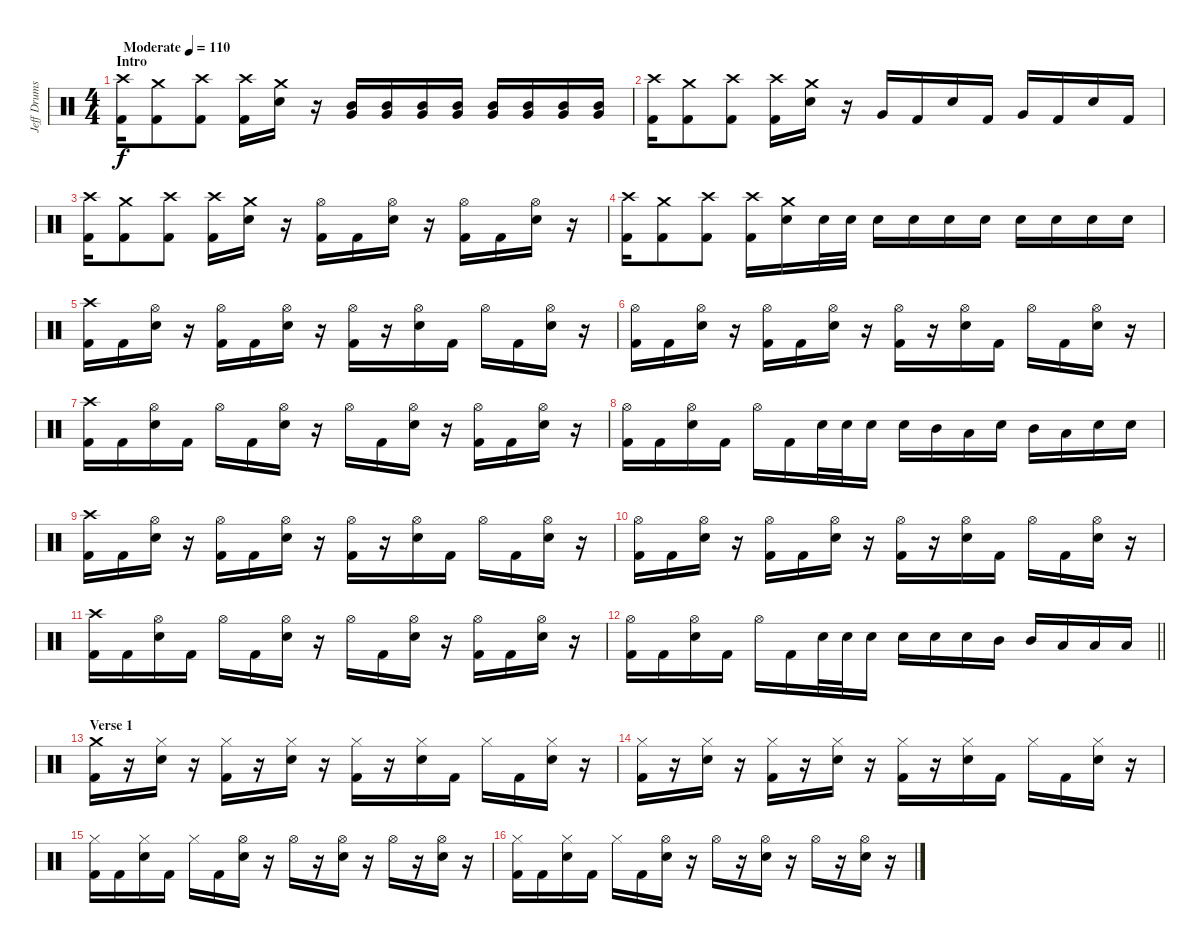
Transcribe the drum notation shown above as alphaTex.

\track ("Jeff Drums" "Jeff Drums") {instrument percussion}
\staff {score}
\articulation defaults
\ts (4 4)
\section ("" "Intro")
\tempo (110 "Moderate")
\clef neutral
\ks c
("Crash high (hit)" "Kick (hit) 2").16{dy f} ("Crash medium (hit)" "Kick (hit) 2").8 ("Crash high (hit)" "Kick (hit) 2").8 ("Crash high (hit)" "Kick (hit) 2").16 ("Crash medium (hit)" "Electric Snare (hit)").16 r.16 ("Mid Tom (hit)" "Very Low Tom (hit)").16 ("Mid Tom (hit)" "Very Low Tom (hit)").16 ("Mid Tom (hit)" "Very Low Tom (hit)").16 ("Mid Tom (hit)" "Very Low Tom (hit)").16 ("Mid Tom (hit)" "Very Low Tom (hit)").16 ("Mid Tom (hit)" "Very Low Tom (hit)").16 ("Mid Tom (hit)" "Very Low Tom (hit)").16 ("Mid Tom (hit)" "Very Low Tom (hit)").16 |
("Crash high (hit)" "Kick (hit) 2").16 ("Crash medium (hit)" "Kick (hit) 2").8 ("Crash high (hit)" "Kick (hit) 2").8 ("Crash high (hit)" "Kick (hit) 2").16 ("Crash medium (hit)" "Electric Snare (hit)").16 r.16 "Very Low Tom (hit)".16 "Kick (hit) 2".16 "Electric Snare (hit)".16 "Kick (hit) 2".16 "Very Low Tom (hit)".16 "Kick (hit) 2".16 "Electric Snare (hit)".16 "Kick (hit) 2".16 |
("Crash high (hit)" "Kick (hit) 2").16 ("Crash medium (hit)" "Kick (hit) 2").8 ("Crash high (hit)" "Kick (hit) 2").8 ("Crash high (hit)" "Kick (hit) 2").16 ("Crash medium (hit)" "Electric Snare (hit)").16 r.16 ("Hi-Hat (open)" "Kick (hit) 2").16 "Kick (hit) 2".16 ("Hi-Hat (open)" "Electric Snare (hit)").16 r.16 ("Hi-Hat (open)" "Kick (hit) 2").16 "Kick (hit) 2".16 ("Hi-Hat (open)" "Electric Snare (hit)").16 r.16 |
("Crash high (hit)" "Kick (hit) 2").16 ("Crash medium (hit)" "Kick (hit) 2").8 ("Crash high (hit)" "Kick (hit) 2").8 ("Crash high (hit)" "Kick (hit) 2").16 ("Crash medium (hit)" "Electric Snare (hit)").16 "Electric Snare (hit)".32 "Electric Snare (hit)".32 "Electric Snare (hit)".16 "Electric Snare (hit)".16 "Electric Snare (hit)".16 "Electric Snare (hit)".16 "Electric Snare (hit)".16 "Electric Snare (hit)".16 "Electric Snare (hit)".16 "Electric Snare (hit)".16 |
("Crash high (hit)" "Kick (hit) 2").16 "Kick (hit) 2".16 ("Hi-Hat (open)" "Electric Snare (hit)").16 r.16 ("Hi-Hat (open)" "Kick (hit) 2").16 "Kick (hit) 2".16 ("Hi-Hat (open)" "Electric Snare (hit)").16 r.16 ("Hi-Hat (open)" "Kick (hit) 2").16 r.16 ("Hi-Hat (open)" "Electric Snare (hit)").16 "Kick (hit) 2".16 "Hi-Hat (open)".16 "Kick (hit) 2".16 ("Hi-Hat (open)" "Electric Snare (hit)").16 r.16 |
("Hi-Hat (open)" "Kick (hit) 2").16 "Kick (hit) 2".16 ("Hi-Hat (open)" "Electric Snare (hit)").16 r.16 ("Hi-Hat (open)" "Kick (hit) 2").16 "Kick (hit) 2".16 ("Hi-Hat (open)" "Electric Snare (hit)").16 r.16 ("Hi-Hat (open)" "Kick (hit) 2").16 r.16 ("Hi-Hat (open)" "Electric Snare (hit)").16 "Kick (hit) 2".16 "Hi-Hat (open)".16 "Kick (hit) 2".16 ("Hi-Hat (open)" "Electric Snare (hit)").16 r.16 |
("Crash high (hit)" "Kick (hit) 2").16 "Kick (hit) 2".16 ("Hi-Hat (open)" "Electric Snare (hit)").16 "Kick (hit) 2".16 "Hi-Hat (open)".16 "Kick (hit) 2".16 ("Hi-Hat (open)" "Electric Snare (hit)").16 r.16 "Hi-Hat (open)".16 "Kick (hit) 2".16 ("Hi-Hat (open)" "Electric Snare (hit)").16 r.16 ("Hi-Hat (open)" "Kick (hit) 2").16 "Kick (hit) 2".16 ("Hi-Hat (open)" "Electric Snare (hit)").16 r.16 |
("Hi-Hat (open)" "Kick (hit) 2").16 "Kick (hit) 2".16 ("Hi-Hat (open)" "Electric Snare (hit)").16 "Kick (hit) 2".16 "Hi-Hat (open)".16 "Kick (hit) 2".16 "Electric Snare (hit)".32 "Electric Snare (hit)".32 "Electric Snare (hit)".16 "Electric Snare (hit)".16 "Mid Tom (hit)".16 "Low Tom (hit)".16 "Electric Snare (hit)".16 "Mid Tom (hit)".16 "Low Tom (hit)".16 "Electric Snare (hit)".16 "Electric Snare (hit)".16 |
("Crash high (hit)" "Kick (hit) 2").16 "Kick (hit) 2".16 ("Hi-Hat (open)" "Electric Snare (hit)").16 r.16 ("Hi-Hat (open)" "Kick (hit) 2").16 "Kick (hit) 2".16 ("Hi-Hat (open)" "Electric Snare (hit)").16 r.16 ("Hi-Hat (open)" "Kick (hit) 2").16 r.16 ("Hi-Hat (open)" "Electric Snare (hit)").16 "Kick (hit) 2".16 "Hi-Hat (open)".16 "Kick (hit) 2".16 ("Hi-Hat (open)" "Electric Snare (hit)").16 r.16 |
("Hi-Hat (open)" "Kick (hit) 2").16 "Kick (hit) 2".16 ("Hi-Hat (open)" "Electric Snare (hit)").16 r.16 ("Hi-Hat (open)" "Kick (hit) 2").16 "Kick (hit) 2".16 ("Hi-Hat (open)" "Electric Snare (hit)").16 r.16 ("Hi-Hat (open)" "Kick (hit) 2").16 r.16 ("Hi-Hat (open)" "Electric Snare (hit)").16 "Kick (hit) 2".16 "Hi-Hat (open)".16 "Kick (hit) 2".16 ("Hi-Hat (open)" "Electric Snare (hit)").16 r.16 |
("Crash high (hit)" "Kick (hit) 2").16 "Kick (hit) 2".16 ("Hi-Hat (open)" "Electric Snare (hit)").16 "Kick (hit) 2".16 "Hi-Hat (open)".16 "Kick (hit) 2".16 ("Hi-Hat (open)" "Electric Snare (hit)").16 r.16 "Hi-Hat (open)".16 "Kick (hit) 2".16 ("Hi-Hat (open)" "Electric Snare (hit)").16 r.16 ("Hi-Hat (open)" "Kick (hit) 2").16 "Kick (hit) 2".16 ("Hi-Hat (open)" "Electric Snare (hit)").16 r.16 |
\barLineRight lightlight
("Hi-Hat (open)" "Kick (hit) 2").16 "Kick (hit) 2".16 ("Hi-Hat (open)" "Electric Snare (hit)").16 "Kick (hit) 2".16 "Hi-Hat (open)".16 "Kick (hit) 2".16 "Electric Snare (hit)".32 "Electric Snare (hit)".32 "Electric Snare (hit)".16 "Electric Snare (hit)".16 "Electric Snare (hit)".16 "Electric Snare (hit)".16 "Mid Tom (hit)".16 "Mid Tom (hit)".16 "Low Tom (hit)".16 "Low Tom (hit)".16 "Low Tom (hit)".16 |
\section ("" "Verse 1")
("Crash medium (hit)" "Kick (hit) 2").16 r.16 ("Hi-Hat (closed)" "Electric Snare (hit)").16 r.16 ("Hi-Hat (closed)" "Kick (hit) 2").16 r.16 ("Hi-Hat (closed)" "Electric Snare (hit)").16 r.16 ("Hi-Hat (closed)" "Kick (hit) 2").16 r.16 ("Hi-Hat (closed)" "Electric Snare (hit)").16 "Kick (hit) 2".16 "Hi-Hat (closed)".16 "Kick (hit) 2".16 ("Hi-Hat (closed)" "Electric Snare (hit)").16 r.16 |
("Hi-Hat (closed)" "Kick (hit) 2").16 r.16 ("Hi-Hat (closed)" "Electric Snare (hit)").16 r.16 ("Hi-Hat (closed)" "Kick (hit) 2").16 r.16 ("Hi-Hat (closed)" "Electric Snare (hit)").16 r.16 ("Hi-Hat (closed)" "Kick (hit) 2").16 r.16 ("Hi-Hat (closed)" "Electric Snare (hit)").16 "Kick (hit) 2".16 "Hi-Hat (closed)".16 "Kick (hit) 2".16 ("Hi-Hat (closed)" "Electric Snare (hit)").16 r.16 |
("Hi-Hat (closed)" "Kick (hit) 2").16 "Kick (hit) 2".16 ("Hi-Hat (closed)" "Electric Snare (hit)").16 "Kick (hit) 2".16 "Hi-Hat (closed)".16 "Kick (hit) 2".16 ("Hi-Hat (open)" "Electric Snare (hit)").16 r.16 "Hi-Hat (open)".16 r.16 ("Hi-Hat (open)" "Electric Snare (hit)").16 r.16 "Hi-Hat (open)".16 r.16 ("Hi-Hat (open)" "Electric Snare (hit)").16 r.16 |
("Hi-Hat (closed)" "Kick (hit) 2").16 "Kick (hit) 2".16 ("Hi-Hat (closed)" "Electric Snare (hit)").16 "Kick (hit) 2".16 "Hi-Hat (closed)".16 "Kick (hit) 2".16 ("Hi-Hat (open)" "Electric Snare (hit)").16 r.16 "Hi-Hat (open)".16 r.16 ("Hi-Hat (open)" "Electric Snare (hit)").16 r.16 "Hi-Hat (open)".16 r.16 ("Hi-Hat (open)" "Electric Snare (hit)").16 r.16
